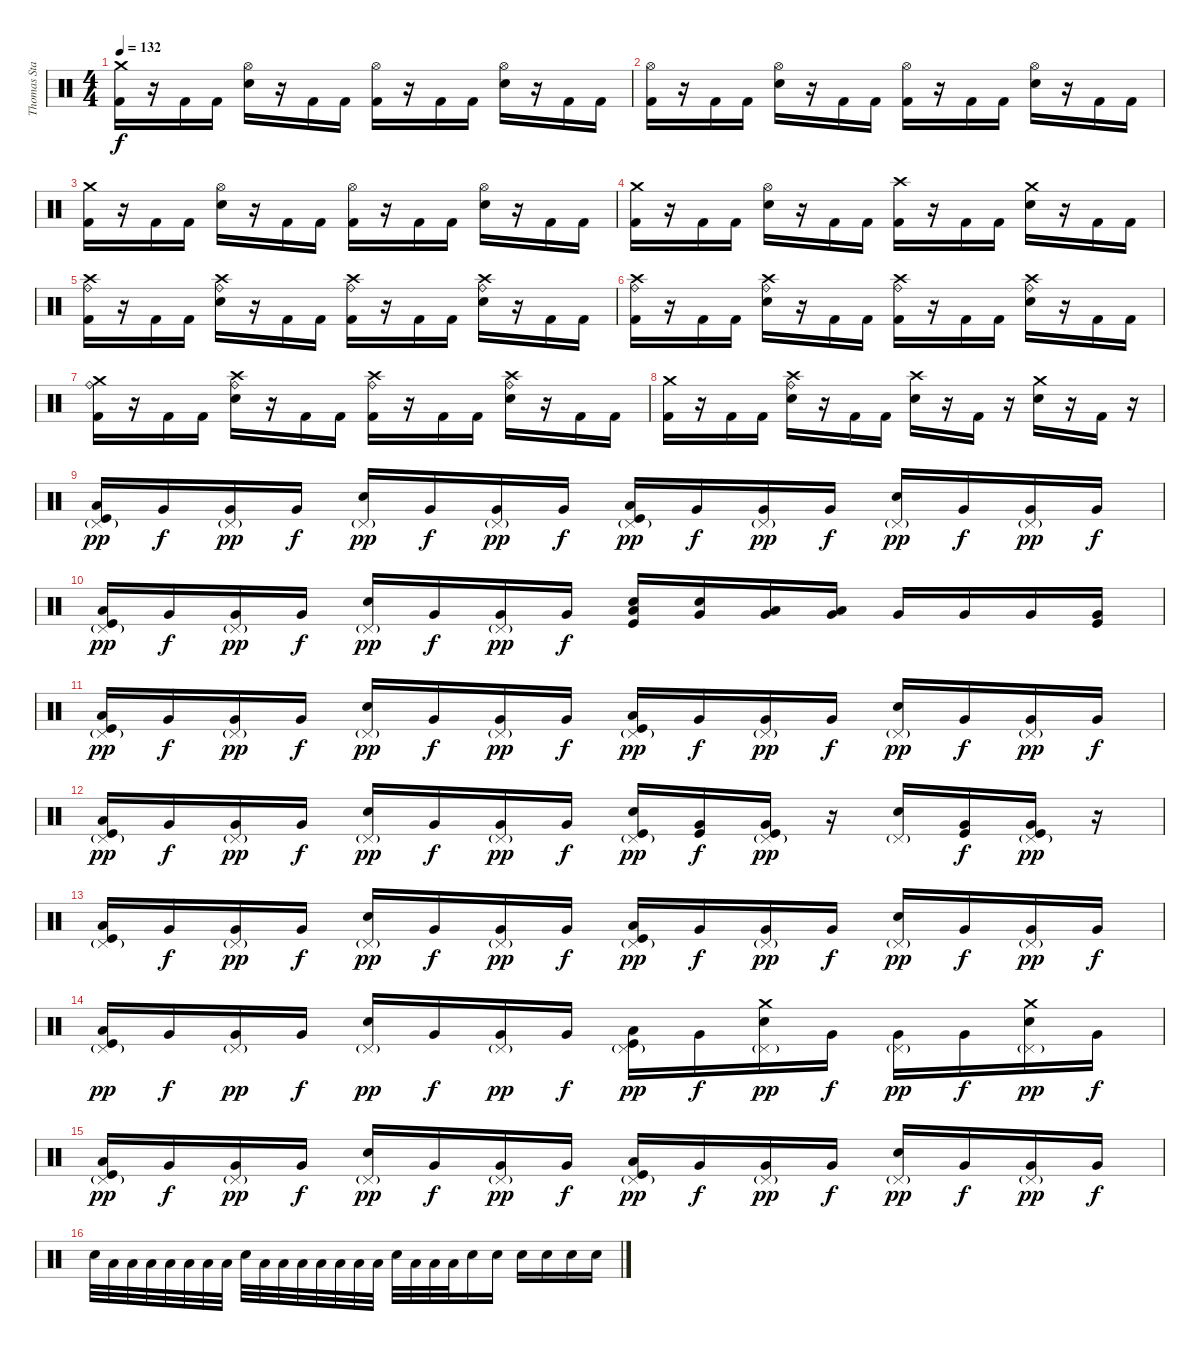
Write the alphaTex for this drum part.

\track ("Thomas Stauch" "Thomas Sta") {instrument percussion}
\staff {score}
\articulation defaults
\ts (4 4)
\tempo 132
\clef neutral
\ks c
("Crash medium (hit)" "Kick (hit) 2").16{dy f} r.16 "Kick (hit) 2".16 "Kick (hit) 2".16 ("Hi-Hat (open)" "Electric Snare (hit)").16 r.16 "Kick (hit) 2".16 "Kick (hit) 2".16 ("Hi-Hat (open)" "Kick (hit) 2").16 r.16 "Kick (hit) 2".16 "Kick (hit) 2".16 ("Hi-Hat (open)" "Electric Snare (hit)").16 r.16 "Kick (hit) 2".16 "Kick (hit) 2".16 |
("Hi-Hat (open)" "Kick (hit) 2").16 r.16 "Kick (hit) 2".16 "Kick (hit) 2".16 ("Hi-Hat (open)" "Electric Snare (hit)").16 r.16 "Kick (hit) 2".16 "Kick (hit) 2".16 ("Hi-Hat (open)" "Kick (hit) 2").16 r.16 "Kick (hit) 2".16 "Kick (hit) 2".16 ("Hi-Hat (open)" "Electric Snare (hit)").16 r.16 "Kick (hit) 2".16 "Kick (hit) 2".16 |
("Crash medium (hit)" "Kick (hit) 2").16 r.16 "Kick (hit) 2".16 "Kick (hit) 2".16 ("Hi-Hat (open)" "Electric Snare (hit)").16 r.16 "Kick (hit) 2".16 "Kick (hit) 2".16 ("Hi-Hat (open)" "Kick (hit) 2").16 r.16 "Kick (hit) 2".16 "Kick (hit) 2".16 ("Hi-Hat (open)" "Electric Snare (hit)").16 r.16 "Kick (hit) 2".16 "Kick (hit) 2".16 |
("Crash medium (hit)" "Kick (hit) 2").16 r.16 "Kick (hit) 2".16 "Kick (hit) 2".16 ("Hi-Hat (open)" "Electric Snare (hit)").16 r.16 "Kick (hit) 2".16 "Kick (hit) 2".16 ("Crash high (hit)" "Kick (hit) 2").16 r.16 "Kick (hit) 2".16 "Kick (hit) 2".16 ("Crash medium (hit)" "Electric Snare (hit)").16 r.16 "Kick (hit) 2".16 "Kick (hit) 2".16 |
("Crash high (hit)" "Ride (bell)" "Kick (hit) 2").16 r.16 "Kick (hit) 2".16 "Kick (hit) 2".16 ("Crash high (hit)" "Ride (bell)" "Electric Snare (hit)").16 r.16 "Kick (hit) 2".16 "Kick (hit) 2".16 ("Crash high (hit)" "Ride (bell)" "Kick (hit) 2").16 r.16 "Kick (hit) 2".16 "Kick (hit) 2".16 ("Crash high (hit)" "Ride (bell)" "Electric Snare (hit)").16 r.16 "Kick (hit) 2".16 "Kick (hit) 2".16 |
("Crash high (hit)" "Ride (bell)" "Kick (hit) 2").16 r.16 "Kick (hit) 2".16 "Kick (hit) 2".16 ("Crash high (hit)" "Ride (bell)" "Electric Snare (hit)").16 r.16 "Kick (hit) 2".16 "Kick (hit) 2".16 ("Crash high (hit)" "Ride (bell)" "Kick (hit) 2").16 r.16 "Kick (hit) 2".16 "Kick (hit) 2".16 ("Crash high (hit)" "Ride (bell)" "Electric Snare (hit)").16 r.16 "Kick (hit) 2".16 "Kick (hit) 2".16 |
("Crash medium (hit)" "Ride (bell)" "Kick (hit) 2").16 r.16 "Kick (hit) 2".16 "Kick (hit) 2".16 ("Crash high (hit)" "Ride (bell)" "Electric Snare (hit)").16 r.16 "Kick (hit) 2".16 "Kick (hit) 2".16 ("Crash high (hit)" "Ride (bell)" "Kick (hit) 2").16 r.16 "Kick (hit) 2".16 "Kick (hit) 2".16 ("Crash high (hit)" "Ride (bell)" "Electric Snare (hit)").16 r.16 "Kick (hit) 2".16 "Kick (hit) 2".16 |
("Crash medium (hit)" "Kick (hit) 2").16 r.16 "Kick (hit) 2".16 "Kick (hit) 2".16 ("Crash high (hit)" "Ride (bell)" "Electric Snare (hit)").16 r.16 "Kick (hit) 2".16 "Kick (hit) 2".16 ("Crash high (hit)" "Electric Snare (hit)").16 r.16 "Kick (hit) 2".16 r.16 ("Crash medium (hit)" "Electric Snare (hit)").16 r.16 "Kick (hit) 2".16 r.16 |
("Pedal Hi-Hat (hit)"{g} "Low Tom (hit)" "Kick (hit)").16{dy pp} "Very Low Tom (hit)".16{dy f} ("Pedal Hi-Hat (hit)"{g} "Very Low Tom (hit)").16{dy pp} "Very Low Tom (hit)".16{dy f} ("Pedal Hi-Hat (hit)"{g} "Electric Snare (hit)").16{dy pp} "Very Low Tom (hit)".16{dy f} ("Pedal Hi-Hat (hit)"{g} "Very Low Tom (hit)").16{dy pp} "Very Low Tom (hit)".16{dy f} ("Pedal Hi-Hat (hit)"{g} "Low Tom (hit)" "Kick (hit)").16{dy pp} "Very Low Tom (hit)".16{dy f} ("Pedal Hi-Hat (hit)"{g} "Very Low Tom (hit)").16{dy pp} "Very Low Tom (hit)".16{dy f} ("Pedal Hi-Hat (hit)"{g} "Electric Snare (hit)").16{dy pp} "Very Low Tom (hit)".16{dy f} ("Pedal Hi-Hat (hit)"{g} "Very Low Tom (hit)").16{dy pp} "Very Low Tom (hit)".16{dy f} |
("Pedal Hi-Hat (hit)"{g} "Low Tom (hit)" "Kick (hit)").16{dy pp} "Very Low Tom (hit)".16{dy f} ("Pedal Hi-Hat (hit)"{g} "Very Low Tom (hit)").16{dy pp} "Very Low Tom (hit)".16{dy f} ("Pedal Hi-Hat (hit)"{g} "Electric Snare (hit)").16{dy pp} "Very Low Tom (hit)".16{dy f} ("Pedal Hi-Hat (hit)"{g} "Very Low Tom (hit)").16{dy pp} "Very Low Tom (hit)".16{dy f} ("Electric Snare (hit)" "Low Tom (hit)" "Kick (hit)").16 ("Electric Snare (hit)" "Very Low Tom (hit)").16 ("Low Tom (hit)" "Very Low Tom (hit)").16 ("Low Tom (hit)" "Very Low Tom (hit)").16 "Very Low Tom (hit)".16 "Very Low Tom (hit)".16 "Very Low Tom (hit)".16 ("Very Low Tom (hit)" "Kick (hit)").16 |
("Pedal Hi-Hat (hit)"{g} "Low Tom (hit)" "Kick (hit)").16{dy pp} "Very Low Tom (hit)".16{dy f} ("Pedal Hi-Hat (hit)"{g} "Very Low Tom (hit)").16{dy pp} "Very Low Tom (hit)".16{dy f} ("Pedal Hi-Hat (hit)"{g} "Electric Snare (hit)").16{dy pp} "Very Low Tom (hit)".16{dy f} ("Pedal Hi-Hat (hit)"{g} "Very Low Tom (hit)").16{dy pp} "Very Low Tom (hit)".16{dy f} ("Pedal Hi-Hat (hit)"{g} "Low Tom (hit)" "Kick (hit)").16{dy pp} "Very Low Tom (hit)".16{dy f} ("Pedal Hi-Hat (hit)"{g} "Very Low Tom (hit)").16{dy pp} "Very Low Tom (hit)".16{dy f} ("Pedal Hi-Hat (hit)"{g} "Electric Snare (hit)").16{dy pp} "Very Low Tom (hit)".16{dy f} ("Pedal Hi-Hat (hit)"{g} "Very Low Tom (hit)").16{dy pp} "Very Low Tom (hit)".16{dy f} |
("Pedal Hi-Hat (hit)"{g} "Low Tom (hit)" "Kick (hit)").16{dy pp} "Very Low Tom (hit)".16{dy f} ("Pedal Hi-Hat (hit)"{g} "Very Low Tom (hit)").16{dy pp} "Very Low Tom (hit)".16{dy f} ("Pedal Hi-Hat (hit)"{g} "Electric Snare (hit)").16{dy pp} "Very Low Tom (hit)".16{dy f} ("Pedal Hi-Hat (hit)"{g} "Very Low Tom (hit)").16{dy pp} "Very Low Tom (hit)".16{dy f} ("Pedal Hi-Hat (hit)"{g} "Electric Snare (hit)" "Kick (hit)").16{dy pp} ("Very Low Tom (hit)" "Kick (hit)").16{dy f} ("Pedal Hi-Hat (hit)"{g} "Very Low Tom (hit)" "Kick (hit)").16{dy pp} r.16 ("Pedal Hi-Hat (hit)"{g} "Electric Snare (hit)").16 ("Very Low Tom (hit)" "Kick (hit)").16{dy f} ("Pedal Hi-Hat (hit)"{g} "Very Low Tom (hit)" "Kick (hit)").16{dy pp} r.16 |
("Pedal Hi-Hat (hit)"{g} "Low Tom (hit)" "Kick (hit)").16 "Very Low Tom (hit)".16{dy f} ("Pedal Hi-Hat (hit)"{g} "Very Low Tom (hit)").16{dy pp} "Very Low Tom (hit)".16{dy f} ("Pedal Hi-Hat (hit)"{g} "Electric Snare (hit)").16{dy pp} "Very Low Tom (hit)".16{dy f} ("Pedal Hi-Hat (hit)"{g} "Very Low Tom (hit)").16{dy pp} "Very Low Tom (hit)".16{dy f} ("Pedal Hi-Hat (hit)"{g} "Low Tom (hit)" "Kick (hit)").16{dy pp} "Very Low Tom (hit)".16{dy f} ("Pedal Hi-Hat (hit)"{g} "Very Low Tom (hit)").16{dy pp} "Very Low Tom (hit)".16{dy f} ("Pedal Hi-Hat (hit)"{g} "Electric Snare (hit)").16{dy pp} "Very Low Tom (hit)".16{dy f} ("Pedal Hi-Hat (hit)"{g} "Very Low Tom (hit)").16{dy pp} "Very Low Tom (hit)".16{dy f} |
("Pedal Hi-Hat (hit)"{g} "Low Tom (hit)" "Kick (hit)").16{dy pp} "Very Low Tom (hit)".16{dy f} ("Pedal Hi-Hat (hit)"{g} "Very Low Tom (hit)").16{dy pp} "Very Low Tom (hit)".16{dy f} ("Pedal Hi-Hat (hit)"{g} "Electric Snare (hit)").16{dy pp} "Very Low Tom (hit)".16{dy f} ("Pedal Hi-Hat (hit)"{g} "Very Low Tom (hit)").16{dy pp} "Very Low Tom (hit)".16{dy f} ("Pedal Hi-Hat (hit)"{g} "Low Tom (hit)" "Kick (hit)").16{dy pp} "Very Low Tom (hit)".16{dy f} ("Pedal Hi-Hat (hit)"{g} "Crash medium (hit)" "Electric Snare (hit)").16{dy pp} "Very Low Tom (hit)".16{dy f} ("Pedal Hi-Hat (hit)"{g} "Very Low Tom (hit)").16{dy pp} "Very Low Tom (hit)".16{dy f} ("Pedal Hi-Hat (hit)"{g} "Crash medium (hit)" "Electric Snare (hit)").16{dy pp} "Very Low Tom (hit)".16{dy f} |
("Pedal Hi-Hat (hit)"{g} "Low Tom (hit)" "Kick (hit)").16{dy pp} "Very Low Tom (hit)".16{dy f} ("Pedal Hi-Hat (hit)"{g} "Very Low Tom (hit)").16{dy pp} "Very Low Tom (hit)".16{dy f} ("Pedal Hi-Hat (hit)"{g} "Electric Snare (hit)").16{dy pp} "Very Low Tom (hit)".16{dy f} ("Pedal Hi-Hat (hit)"{g} "Very Low Tom (hit)").16{dy pp} "Very Low Tom (hit)".16{dy f} ("Pedal Hi-Hat (hit)"{g} "Low Tom (hit)" "Kick (hit)").16{dy pp} "Very Low Tom (hit)".16{dy f} ("Pedal Hi-Hat (hit)"{g} "Very Low Tom (hit)").16{dy pp} "Very Low Tom (hit)".16{dy f} ("Pedal Hi-Hat (hit)"{g} "Electric Snare (hit)").16{dy pp} "Very Low Tom (hit)".16{dy f} ("Pedal Hi-Hat (hit)"{g} "Very Low Tom (hit)").16{dy pp} "Very Low Tom (hit)".16{dy f} |
"Electric Snare (hit)".32 "Low Floor Tom (hit)".32 "Low Floor Tom (hit)".32 "Low Floor Tom (hit)".32 "Low Floor Tom (hit)".32 "Low Floor Tom (hit)".32 "Low Floor Tom (hit)".32 "Low Floor Tom (hit)".32 "Electric Snare (hit)".32 "Low Floor Tom (hit)".32 "Low Floor Tom (hit)".32 "Low Floor Tom (hit)".32 "Low Floor Tom (hit)".32 "Low Floor Tom (hit)".32 "Low Floor Tom (hit)".32 "Low Floor Tom (hit)".32 "Electric Snare (hit)".32 "Low Floor Tom (hit)".32 "Low Floor Tom (hit)".32 "Low Floor Tom (hit)".32 "Electric Snare (hit)".16 "Electric Snare (hit)".16 "Electric Snare (hit)".16 "Electric Snare (hit)".16 "Electric Snare (hit)".16 "Electric Snare (hit)".16
